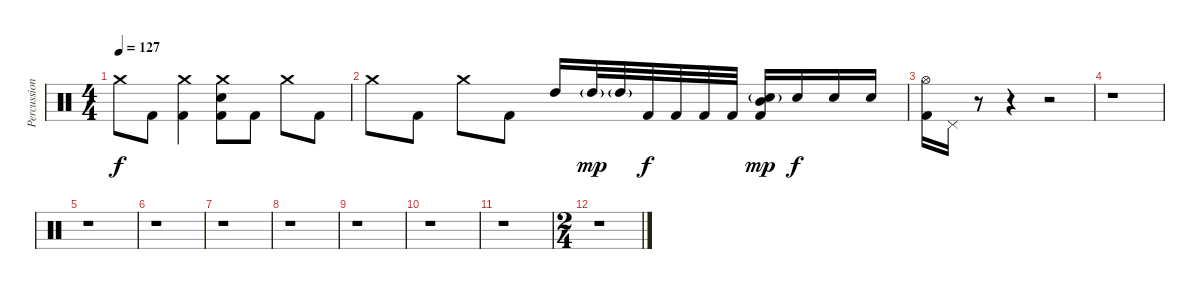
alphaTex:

\track ("Percussion" "Percussion") {instrument percussion}
\staff {score}
\articulation defaults
\ts (4 4)
\tempo 127
\clef neutral
\ks c "Crash medium (hit)".8{dy f} "Kick (hit) 2".8
("Crash medium (hit)" "Kick (hit) 2").4 ("Crash medium (hit)" "Electric Snare (hit)" "Kick (hit) 2").8 "Kick (hit) 2".8 "Crash medium (hit)".8 "Kick (hit) 2".8 |
"Crash medium (hit)".8 "Kick (hit) 2".8 "Crash medium (hit)".8 "Kick (hit) 2".8 "High Tom (hit)".16 "High Tom (hit)"{g}.32{dy mp} "High Tom (hit)"{g}.32 "Kick (hit) 2".32{dy f} "Kick (hit) 2".32 "Kick (hit) 2".32 "Kick (hit) 2".32 ("Mid Tom (hit)" "Electric Snare (hit)"{g} "Kick (hit) 2").16{dy mp} "Electric Snare (hit)".16{dy f} "Electric Snare (hit)".16 "Electric Snare (hit)".16 |
("Hi-Hat (open)" "Kick (hit) 2").16 "Pedal Hi-Hat (hit)".16 r.8 r.4 r.2 |
r.1 |
r.1 |
r.1 |
r.1 |
r.1 |
r.1 |
r.1 |
r.1 |
\ts (2 4)
r.1
